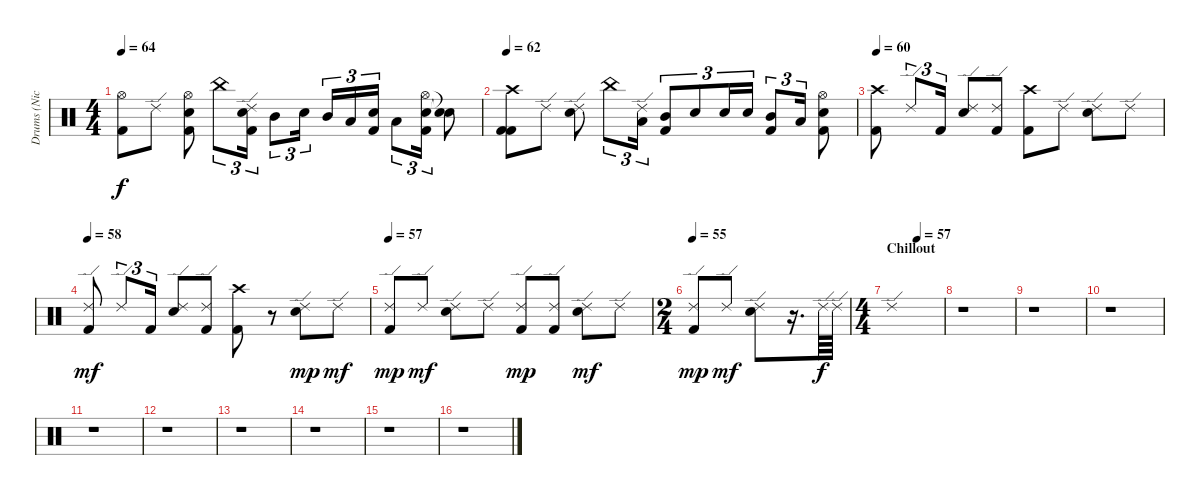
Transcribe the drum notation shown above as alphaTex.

\track ("Drums (Nick)" "Drums (Nic") {instrument percussion}
\staff {score}
\articulation defaults
\ts (4 4)
\tempo 64
\clef neutral
\ks c
("Hi-Hat (open)" "Kick (hit) 2").8{dy f} "Ride (edge) 2".8 ("Hi-Hat (open)" "Electric Snare (hit)" "Kick (hit) 2").8 "China (hit)".8{tu (3 2)} ("Ride (edge) 2" "Electric Snare (hit)" "Kick (hit) 2").16{tu (3 2)} "Mid Tom (hit)".8{tu (3 2)} "Electric Snare (hit)".16{tu (3 2)} "Mid Tom (hit)".16{tu (3 2)} "Low Tom (hit)".16{tu (3 2)} ("Electric Snare (hit)" "Kick (hit) 2").16{tu (3 2)} "Low Tom (hit)".8{tu (3 2)} ("Hi-Hat (open)" "Electric Snare (hit)" "Kick (hit) 2").16{tu (3 2)} ("Snare (hit)"{t} "Snare (hit)"{t}).8 |
\tempo 62
("Crash high (hit)" "Kick (hit) 2" "Kick (hit) 2").8 "Ride (edge) 2".8 ("Ride (edge) 2" "Electric Snare (hit)").8 "China (hit)".8{tu (3 2)} ("Ride (edge) 2" "Low Tom (hit)").16{tu (3 2)} ("Mid Tom (hit)" "Kick (hit) 2").8{tu (3 2)} "Electric Snare (hit)".8{tu (3 2)} "Electric Snare (hit)".16{tu (3 2)} "Electric Snare (hit)".16{tu (3 2)} ("Mid Tom (hit)" "Kick (hit) 2").8{tu (3 2)} "Low Tom (hit)".16{tu (3 2)} ("Hi-Hat (open)" "Electric Snare (hit)" "Kick (hit) 2").8 |
\tempo 60
("Crash high (hit)" "Kick (hit) 2").8 "Ride (edge) 2".8{tu (3 2)} "Kick (hit) 2".16{tu (3 2)} ("Ride (edge) 2" "Electric Snare (hit)").8 ("Ride (edge) 2" "Kick (hit) 2").8 ("Crash high (hit)" "Kick (hit) 2").8 "Ride (edge) 2".8 ("Ride (edge) 2" "Electric Snare (hit)").8 "Ride (edge) 2".8 |
\tempo 58
("Ride (edge) 2" "Kick (hit) 2").8{dy mf} "Ride (edge) 2".8{tu (3 2)} "Kick (hit) 2".16{tu (3 2)} ("Ride (edge) 2" "Electric Snare (hit)").8 ("Ride (edge) 2" "Kick (hit) 2").8 ("Crash high (hit)" "Kick (hit) 2").8 r.8 ("Ride (edge) 2" "Electric Snare (hit)").8{dy mp} "Ride (edge) 2".8{dy mf} |
\tempo 57
("Ride (edge) 2" "Kick (hit) 2").8{dy mp} "Ride (edge) 2".8{dy mf} ("Ride (edge) 2" "Electric Snare (hit)").8 "Ride (edge) 2".8 ("Ride (edge) 2" "Kick (hit) 2").8{dy mp} ("Ride (edge) 2" "Kick (hit) 2").8 ("Ride (edge) 2" "Electric Snare (hit)").8{dy mf} "Ride (edge) 2".8 |
\ts (2 4)
\tempo 55
("Ride (edge) 2" "Kick (hit) 2").8{dy mp} "Ride (edge) 2".8{dy mf} ("Ride (edge) 2" "Electric Snare (hit)").8 r.16{d} "Ride (edge) 2".64{dy f} "Ride (edge) 2".64 |
\ts (4 4)
\section ("" "Chillout")
\tempo (57 0.5)
"Ride (edge) 2".1 |
r.1 |
r.1 |
r.1 |
r.1 |
r.1 |
r.1 |
r.1 |
r.1 |
r.1
